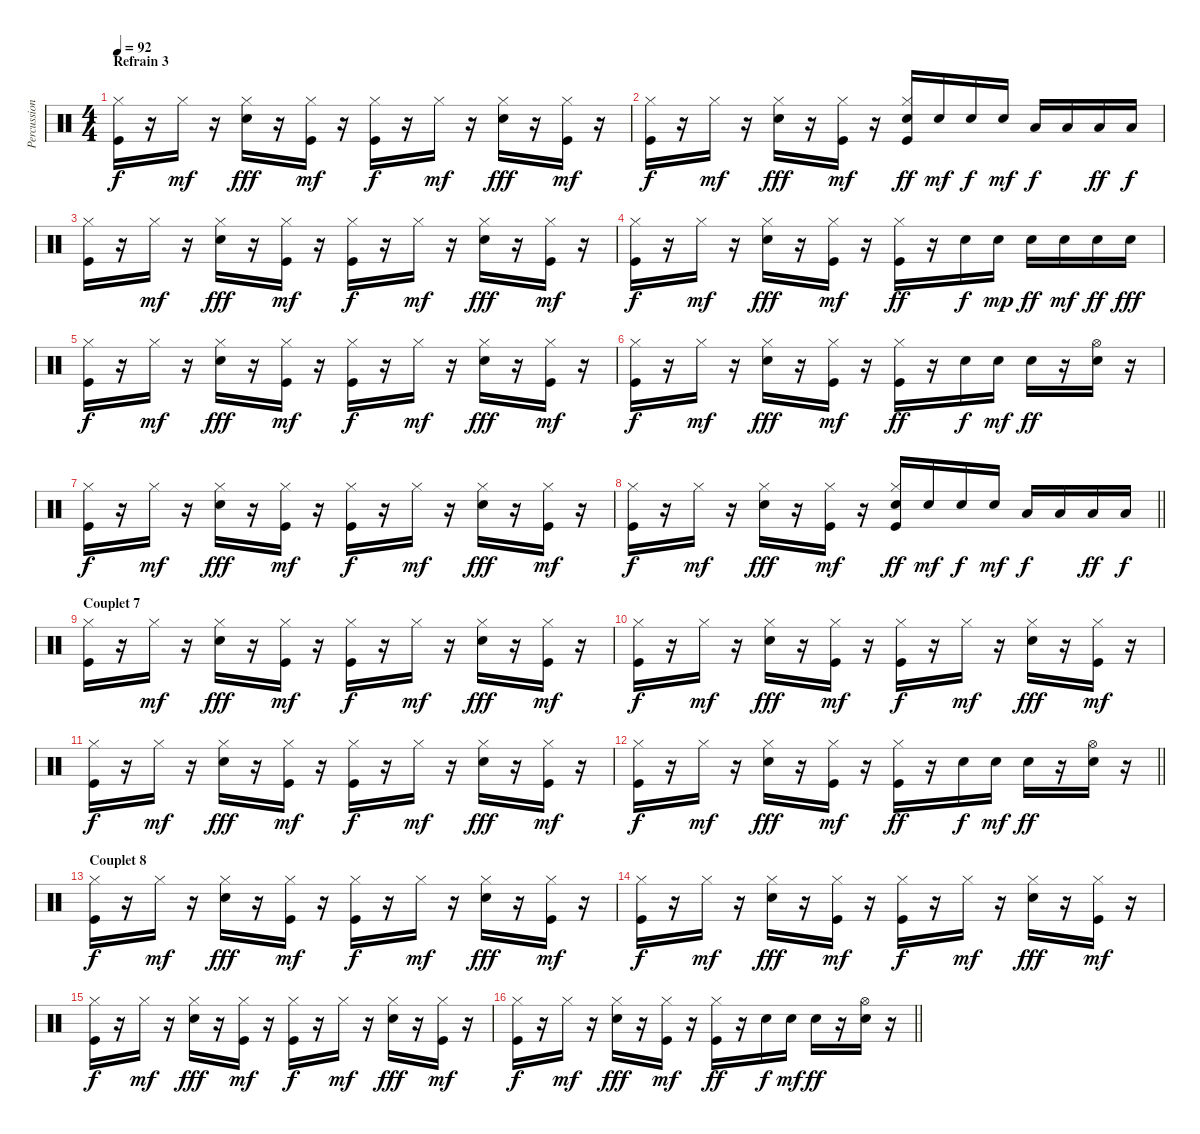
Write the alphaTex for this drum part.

\track ("Percussions" "Percussion") {instrument percussion}
\staff {score}
\articulation defaults
\ts (4 4)
\section ("" "Refrain 3")
\tempo 92
\clef neutral
\ks c
("Kick (hit)" "Hi-Hat (closed)").16{dy f} r.16 "Hi-Hat (closed)".16{dy mf} r.16 ("Snare (hit) 2" "Hi-Hat (closed)").16{dy fff} r.16 ("Kick (hit)" "Hi-Hat (closed)").16{dy mf} r.16 ("Kick (hit)" "Hi-Hat (closed)").16{dy f} r.16 "Hi-Hat (closed)".16{dy mf} r.16 ("Snare (hit) 2" "Hi-Hat (closed)").16{dy fff} r.16 ("Kick (hit)" "Hi-Hat (closed)").16{dy mf} r.16 |
("Kick (hit)" "Hi-Hat (closed)").16{dy f} r.16 "Hi-Hat (closed)".16{dy mf} r.16 ("Snare (hit) 2" "Hi-Hat (closed)").16{dy fff} r.16 ("Kick (hit)" "Hi-Hat (closed)").16{dy mf} r.16 ("Kick (hit)" "Snare (hit) 2" "Hi-Hat (closed)").16{dy ff} "Snare (hit) 2".16{dy mf} "Snare (hit) 2".16{dy f} "Snare (hit) 2".16{dy mf} "Low Tom (hit)".16{dy f} "Low Tom (hit)".16 "Low Tom (hit)".16{dy ff} "Low Tom (hit)".16{dy f} |
("Kick (hit)" "Hi-Hat (closed)").16 r.16 "Hi-Hat (closed)".16{dy mf} r.16 ("Snare (hit) 2" "Hi-Hat (closed)").16{dy fff} r.16 ("Kick (hit)" "Hi-Hat (closed)").16{dy mf} r.16 ("Kick (hit)" "Hi-Hat (closed)").16{dy f} r.16 "Hi-Hat (closed)".16{dy mf} r.16 ("Snare (hit) 2" "Hi-Hat (closed)").16{dy fff} r.16 ("Kick (hit)" "Hi-Hat (closed)").16{dy mf} r.16 |
("Kick (hit)" "Hi-Hat (closed)").16{dy f} r.16 "Hi-Hat (closed)".16{dy mf} r.16 ("Snare (hit) 2" "Hi-Hat (closed)").16{dy fff} r.16 ("Kick (hit)" "Hi-Hat (closed)").16{dy mf} r.16 ("Kick (hit)" "Hi-Hat (closed)").16{dy ff} r.16 "Snare (hit) 2".16{dy f} "Snare (hit) 2".16{dy mp} "Snare (hit) 2".16{dy ff} "Snare (hit) 2".16{dy mf} "Snare (hit) 2".16{dy ff} "Snare (hit) 2".16{dy fff} |
("Kick (hit)" "Hi-Hat (closed)").16{dy f} r.16 "Hi-Hat (closed)".16{dy mf} r.16 ("Snare (hit) 2" "Hi-Hat (closed)").16{dy fff} r.16 ("Kick (hit)" "Hi-Hat (closed)").16{dy mf} r.16 ("Kick (hit)" "Hi-Hat (closed)").16{dy f} r.16 "Hi-Hat (closed)".16{dy mf} r.16 ("Snare (hit) 2" "Hi-Hat (closed)").16{dy fff} r.16 ("Kick (hit)" "Hi-Hat (closed)").16{dy mf} r.16 |
("Kick (hit)" "Hi-Hat (closed)").16{dy f} r.16 "Hi-Hat (closed)".16{dy mf} r.16 ("Snare (hit) 2" "Hi-Hat (closed)").16{dy fff} r.16 ("Kick (hit)" "Hi-Hat (closed)").16{dy mf} r.16 ("Kick (hit)" "Hi-Hat (closed)").16{dy ff} r.16 "Snare (hit) 2".16{dy f} "Snare (hit) 2".16{dy mf} "Snare (hit) 2".16{dy ff} r.16 ("Snare (hit) 2" "Hi-Hat (open)").16 r.16 |
("Kick (hit)" "Hi-Hat (closed)").16{dy f} r.16 "Hi-Hat (closed)".16{dy mf} r.16 ("Snare (hit) 2" "Hi-Hat (closed)").16{dy fff} r.16 ("Kick (hit)" "Hi-Hat (closed)").16{dy mf} r.16 ("Kick (hit)" "Hi-Hat (closed)").16{dy f} r.16 "Hi-Hat (closed)".16{dy mf} r.16 ("Snare (hit) 2" "Hi-Hat (closed)").16{dy fff} r.16 ("Kick (hit)" "Hi-Hat (closed)").16{dy mf} r.16 |
\barLineRight lightlight
("Kick (hit)" "Hi-Hat (closed)").16{dy f} r.16 "Hi-Hat (closed)".16{dy mf} r.16 ("Snare (hit) 2" "Hi-Hat (closed)").16{dy fff} r.16 ("Kick (hit)" "Hi-Hat (closed)").16{dy mf} r.16 ("Kick (hit)" "Snare (hit) 2" "Hi-Hat (closed)").16{dy ff} "Snare (hit) 2".16{dy mf} "Snare (hit) 2".16{dy f} "Snare (hit) 2".16{dy mf} "Low Tom (hit)".16{dy f} "Low Tom (hit)".16 "Low Tom (hit)".16{dy ff} "Low Tom (hit)".16{dy f} |
\section ("" "Couplet 7")
("Kick (hit)" "Hi-Hat (closed)").16 r.16 "Hi-Hat (closed)".16{dy mf} r.16 ("Snare (hit) 2" "Hi-Hat (closed)").16{dy fff} r.16 ("Kick (hit)" "Hi-Hat (closed)").16{dy mf} r.16 ("Kick (hit)" "Hi-Hat (closed)").16{dy f} r.16 "Hi-Hat (closed)".16{dy mf} r.16 ("Snare (hit) 2" "Hi-Hat (closed)").16{dy fff} r.16 ("Kick (hit)" "Hi-Hat (closed)").16{dy mf} r.16 |
("Kick (hit)" "Hi-Hat (closed)").16{dy f} r.16 "Hi-Hat (closed)".16{dy mf} r.16 ("Snare (hit) 2" "Hi-Hat (closed)").16{dy fff} r.16 ("Kick (hit)" "Hi-Hat (closed)").16{dy mf} r.16 ("Kick (hit)" "Hi-Hat (closed)").16{dy f} r.16 "Hi-Hat (closed)".16{dy mf} r.16 ("Snare (hit) 2" "Hi-Hat (closed)").16{dy fff} r.16 ("Kick (hit)" "Hi-Hat (closed)").16{dy mf} r.16 |
("Kick (hit)" "Hi-Hat (closed)").16{dy f} r.16 "Hi-Hat (closed)".16{dy mf} r.16 ("Snare (hit) 2" "Hi-Hat (closed)").16{dy fff} r.16 ("Kick (hit)" "Hi-Hat (closed)").16{dy mf} r.16 ("Kick (hit)" "Hi-Hat (closed)").16{dy f} r.16 "Hi-Hat (closed)".16{dy mf} r.16 ("Snare (hit) 2" "Hi-Hat (closed)").16{dy fff} r.16 ("Kick (hit)" "Hi-Hat (closed)").16{dy mf} r.16 |
\barLineRight lightlight
("Kick (hit)" "Hi-Hat (closed)").16{dy f} r.16 "Hi-Hat (closed)".16{dy mf} r.16 ("Snare (hit) 2" "Hi-Hat (closed)").16{dy fff} r.16 ("Kick (hit)" "Hi-Hat (closed)").16{dy mf} r.16 ("Kick (hit)" "Hi-Hat (closed)").16{dy ff} r.16 "Snare (hit) 2".16{dy f} "Snare (hit) 2".16{dy mf} "Snare (hit) 2".16{dy ff} r.16 ("Snare (hit) 2" "Hi-Hat (open)").16 r.16 |
\section ("" "Couplet 8")
("Kick (hit)" "Hi-Hat (closed)").16{dy f} r.16 "Hi-Hat (closed)".16{dy mf} r.16 ("Snare (hit) 2" "Hi-Hat (closed)").16{dy fff} r.16 ("Kick (hit)" "Hi-Hat (closed)").16{dy mf} r.16 ("Kick (hit)" "Hi-Hat (closed)").16{dy f} r.16 "Hi-Hat (closed)".16{dy mf} r.16 ("Snare (hit) 2" "Hi-Hat (closed)").16{dy fff} r.16 ("Kick (hit)" "Hi-Hat (closed)").16{dy mf} r.16 |
("Kick (hit)" "Hi-Hat (closed)").16{dy f} r.16 "Hi-Hat (closed)".16{dy mf} r.16 ("Snare (hit) 2" "Hi-Hat (closed)").16{dy fff} r.16 ("Kick (hit)" "Hi-Hat (closed)").16{dy mf} r.16 ("Kick (hit)" "Hi-Hat (closed)").16{dy f} r.16 "Hi-Hat (closed)".16{dy mf} r.16 ("Snare (hit) 2" "Hi-Hat (closed)").16{dy fff} r.16 ("Kick (hit)" "Hi-Hat (closed)").16{dy mf} r.16 |
("Kick (hit)" "Hi-Hat (closed)").16{dy f} r.16 "Hi-Hat (closed)".16{dy mf} r.16 ("Snare (hit) 2" "Hi-Hat (closed)").16{dy fff} r.16 ("Kick (hit)" "Hi-Hat (closed)").16{dy mf} r.16 ("Kick (hit)" "Hi-Hat (closed)").16{dy f} r.16 "Hi-Hat (closed)".16{dy mf} r.16 ("Snare (hit) 2" "Hi-Hat (closed)").16{dy fff} r.16 ("Kick (hit)" "Hi-Hat (closed)").16{dy mf} r.16 |
\barLineRight lightlight
("Kick (hit)" "Hi-Hat (closed)").16{dy f} r.16 "Hi-Hat (closed)".16{dy mf} r.16 ("Snare (hit) 2" "Hi-Hat (closed)").16{dy fff} r.16 ("Kick (hit)" "Hi-Hat (closed)").16{dy mf} r.16 ("Kick (hit)" "Hi-Hat (closed)").16{dy ff} r.16 "Snare (hit) 2".16{dy f} "Snare (hit) 2".16{dy mf} "Snare (hit) 2".16{dy ff} r.16 ("Snare (hit) 2" "Hi-Hat (open)").16 r.16
